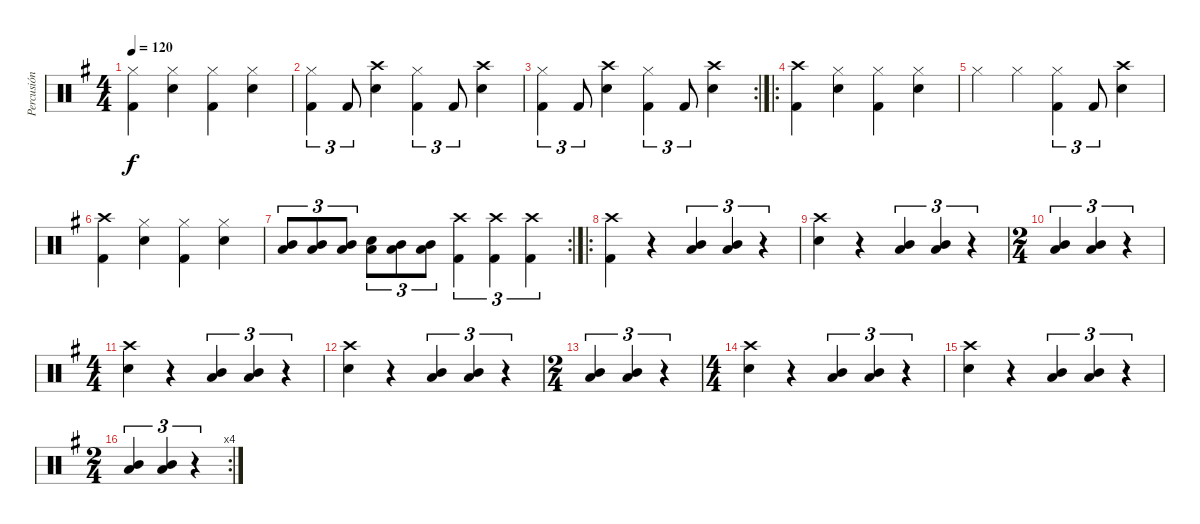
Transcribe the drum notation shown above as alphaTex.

\track ("Percusión" "Percusión") {instrument percussion}
\staff {score}
\articulation defaults
\ts (4 4)
\tempo 120
\clef neutral
\ks g
("Hi-Hat (closed)" "Kick (hit) 2").4{dy f} ("Hi-Hat (closed)" "Snare (hit) 2").4 ("Hi-Hat (closed)" "Kick (hit) 2").4 ("Hi-Hat (closed)" "Snare (hit) 2").4 |
("Hi-Hat (closed)" "Kick (hit) 2").4{tu (3 2)} "Kick (hit) 2".8{tu (3 2)} ("Crash high (hit)" "Snare (hit) 2").4 ("Hi-Hat (closed)" "Kick (hit) 2").4{tu (3 2)} "Kick (hit) 2".8{tu (3 2)} ("Crash high (hit)" "Snare (hit) 2").4 |
\rc 2
("Hi-Hat (closed)" "Kick (hit) 2").4{tu (3 2)} "Kick (hit) 2".8{tu (3 2)} ("Crash high (hit)" "Snare (hit) 2").4 ("Hi-Hat (closed)" "Kick (hit) 2").4{tu (3 2)} "Kick (hit) 2".8{tu (3 2)} ("Crash high (hit)" "Snare (hit) 2").4 |
\ro
("Crash high (hit)" "Kick (hit) 2").4 ("Hi-Hat (closed)" "Snare (hit) 2").4 ("Hi-Hat (closed)" "Kick (hit) 2").4 ("Hi-Hat (closed)" "Snare (hit) 2").4 |
"Hi-Hat (closed)".4 "Hi-Hat (closed)".4 ("Hi-Hat (closed)" "Kick (hit) 2").4{tu (3 2)} "Kick (hit) 2".8{tu (3 2)} ("Crash high (hit)" "Snare (hit) 2").4 |
("Crash high (hit)" "Kick (hit) 2").4 ("Hi-Hat (closed)" "Snare (hit) 2").4 ("Hi-Hat (closed)" "Kick (hit) 2").4 ("Hi-Hat (closed)" "Snare (hit) 2").4 |
\rc 2
("Low Tom (hit)" "Mid Tom (hit)").8{tu (3 2)} ("Low Tom (hit)" "Mid Tom (hit)").8{tu (3 2)} ("Low Tom (hit)" "Mid Tom (hit)").8{tu (3 2)} ("Low Tom (hit)" "Snare (hit) 2").8{tu (3 2)} ("Low Tom (hit)" "Mid Tom (hit)").8{tu (3 2)} ("Low Tom (hit)" "Mid Tom (hit)").8{tu (3 2)} ("Crash high (hit)" "Kick (hit) 2").4{tu (3 2)} ("Crash high (hit)" "Kick (hit) 2").4{tu (3 2)} ("Crash high (hit)" "Kick (hit) 2").4{tu (3 2)} |
\ro
("Crash high (hit)" "Kick (hit) 2").4 r.4 ("Mid Tom (hit)" "Low Tom (hit)").4{tu (3 2)} ("Mid Tom (hit)" "Low Tom (hit)").4{tu (3 2)} r.4{tu (3 2)} |
("Crash high (hit)" "Snare (hit) 2").4 r.4 ("Mid Tom (hit)" "Low Tom (hit)").4{tu (3 2)} ("Mid Tom (hit)" "Low Tom (hit)").4{tu (3 2)} r.4{tu (3 2)} |
\ts (2 4)
("Mid Tom (hit)" "Low Tom (hit)").4{tu (3 2)} ("Mid Tom (hit)" "Low Tom (hit)").4{tu (3 2)} r.4{tu (3 2)} |
\ts (4 4)
("Crash high (hit)" "Snare (hit) 2").4 r.4 ("Mid Tom (hit)" "Low Tom (hit)").4{tu (3 2)} ("Mid Tom (hit)" "Low Tom (hit)").4{tu (3 2)} r.4{tu (3 2)} |
("Crash high (hit)" "Snare (hit) 2").4 r.4 ("Mid Tom (hit)" "Low Tom (hit)").4{tu (3 2)} ("Mid Tom (hit)" "Low Tom (hit)").4{tu (3 2)} r.4{tu (3 2)} |
\ts (2 4)
("Mid Tom (hit)" "Low Tom (hit)").4{tu (3 2)} ("Mid Tom (hit)" "Low Tom (hit)").4{tu (3 2)} r.4{tu (3 2)} |
\ts (4 4)
("Crash high (hit)" "Snare (hit) 2").4 r.4 ("Mid Tom (hit)" "Low Tom (hit)").4{tu (3 2)} ("Mid Tom (hit)" "Low Tom (hit)").4{tu (3 2)} r.4{tu (3 2)} |
("Crash high (hit)" "Snare (hit) 2").4 r.4 ("Mid Tom (hit)" "Low Tom (hit)").4{tu (3 2)} ("Mid Tom (hit)" "Low Tom (hit)").4{tu (3 2)} r.4{tu (3 2)} |
\rc 4
\ts (2 4)
("Mid Tom (hit)" "Low Tom (hit)").4{tu (3 2)} ("Mid Tom (hit)" "Low Tom (hit)").4{tu (3 2)} r.4{tu (3 2)}
